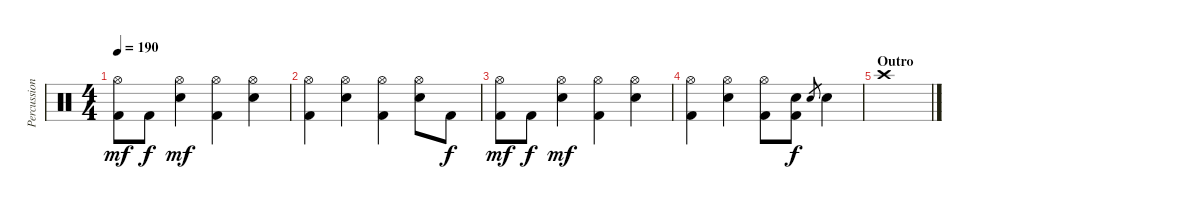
\track ("Percussion" "Percussion") {instrument percussion}
\staff {score}
\articulation defaults
\ts (4 4)
\tempo 190
\clef neutral
\ks c
("Hi-Hat (open)" "Kick (hit) 2").8{dy mf} "Kick (hit) 2".8{dy f} ("Hi-Hat (open)" "Electric Snare (hit)").4{dy mf} ("Hi-Hat (open)" "Kick (hit) 2").4 ("Hi-Hat (open)" "Electric Snare (hit)").4 |
("Hi-Hat (open)" "Kick (hit) 2").4 ("Hi-Hat (open)" "Electric Snare (hit)").4 ("Hi-Hat (open)" "Kick (hit) 2").4 ("Hi-Hat (open)" "Electric Snare (hit)").8 "Kick (hit) 2".8{dy f} |
("Hi-Hat (open)" "Kick (hit) 2").8{dy mf} "Kick (hit) 2".8{dy f} ("Hi-Hat (open)" "Electric Snare (hit)").4{dy mf} ("Hi-Hat (open)" "Kick (hit) 2").4 ("Hi-Hat (open)" "Electric Snare (hit)").4 |
("Hi-Hat (open)" "Kick (hit) 2").4 ("Hi-Hat (open)" "Electric Snare (hit)").4 ("Hi-Hat (open)" "Kick (hit) 2").8 ("Electric Snare (hit)" "Kick (hit) 2").8{dy f} "Electric Snare (hit)".8{gr} "Electric Snare (hit)".4 |
\section ("" "Outro")
"Crash high (hit)".1
